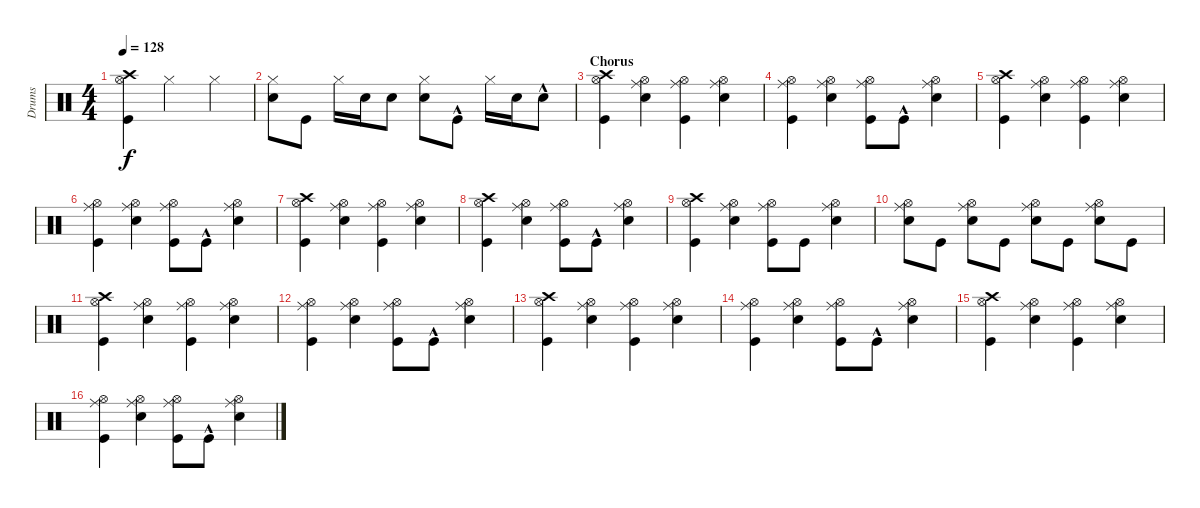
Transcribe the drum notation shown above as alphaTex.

\track ("Drums" "Drums") {instrument percussion}
\staff {score}
\articulation defaults
\ts (4 4)
\tempo 128
\clef neutral
\ks c
("Kick (hit)" "Hi-Hat (open)" "Crash high (hit)").4{dy f} "Hi-Hat (closed)".2 "Hi-Hat (closed)".4 |
("Snare (hit) 2" "Hi-Hat (closed)").8 "Kick (hit)".8 "Hi-Hat (closed)".16 "Snare (hit) 2".16 "Snare (hit) 2".8 ("Snare (hit) 2" "Hi-Hat (closed)").8 "Kick (hit)"{hac}.8 "Hi-Hat (closed)".16 "Snare (hit) 2".16 "Snare (hit) 2"{hac}.8 |
\section ("" "Chorus")
("Kick (hit)" "Hi-Hat (open)" "Crash high (hit)").4 ("Snare (hit) 2" "Hi-Hat (open)" "Ride (middle)").4 ("Kick (hit)" "Hi-Hat (open)" "Ride (middle)").4 ("Snare (hit) 2" "Hi-Hat (open)" "Ride (middle)").4 |
("Kick (hit)" "Hi-Hat (open)" "Ride (middle)").4 ("Snare (hit) 2" "Hi-Hat (open)" "Ride (middle)").4 ("Kick (hit)" "Hi-Hat (open)" "Ride (middle)").8 "Kick (hit)"{hac}.8 ("Snare (hit) 2" "Hi-Hat (open)" "Ride (middle)").4 |
("Kick (hit)" "Hi-Hat (open)" "Crash high (hit)").4 ("Snare (hit) 2" "Hi-Hat (open)" "Ride (middle)").4 ("Kick (hit)" "Hi-Hat (open)" "Ride (middle)").4 ("Snare (hit) 2" "Hi-Hat (open)" "Ride (middle)").4 |
("Kick (hit)" "Hi-Hat (open)" "Ride (middle)").4 ("Snare (hit) 2" "Hi-Hat (open)" "Ride (middle)").4 ("Kick (hit)" "Hi-Hat (open)" "Ride (middle)").8 "Kick (hit)"{hac}.8 ("Snare (hit) 2" "Hi-Hat (open)" "Ride (middle)").4 |
("Kick (hit)" "Hi-Hat (open)" "Crash high (hit)").4 ("Snare (hit) 2" "Hi-Hat (open)" "Ride (middle)").4 ("Kick (hit)" "Hi-Hat (open)" "Ride (middle)").4 ("Snare (hit) 2" "Hi-Hat (open)" "Ride (middle)").4 |
("Kick (hit)" "Hi-Hat (open)" "Crash high (hit)").4 ("Snare (hit) 2" "Hi-Hat (open)" "Ride (middle)").4 ("Kick (hit)" "Hi-Hat (open)" "Ride (middle)").8 "Kick (hit)"{hac}.8 ("Snare (hit) 2" "Hi-Hat (open)" "Ride (middle)").4 |
("Kick (hit)" "Hi-Hat (open)" "Crash high (hit)").4 ("Snare (hit) 2" "Hi-Hat (open)" "Ride (middle)").4 ("Kick (hit)" "Hi-Hat (open)" "Ride (middle)").8 "Kick (hit)".8 ("Snare (hit) 2" "Hi-Hat (open)" "Ride (middle)").4 |
("Snare (hit) 2" "Hi-Hat (open)" "Ride (middle)").8 "Kick (hit)".8 ("Snare (hit) 2" "Hi-Hat (open)" "Ride (middle)").8 "Kick (hit)".8 ("Snare (hit) 2" "Hi-Hat (open)" "Ride (middle)").8 "Kick (hit)".8 ("Snare (hit) 2" "Hi-Hat (open)" "Ride (middle)").8 "Kick (hit)".8 |
("Kick (hit)" "Hi-Hat (open)" "Crash high (hit)").4 ("Snare (hit) 2" "Hi-Hat (open)" "Ride (middle)").4 ("Kick (hit)" "Hi-Hat (open)" "Ride (middle)").4 ("Snare (hit) 2" "Hi-Hat (open)" "Ride (middle)").4 |
("Kick (hit)" "Hi-Hat (open)" "Ride (middle)").4 ("Snare (hit) 2" "Hi-Hat (open)" "Ride (middle)").4 ("Kick (hit)" "Hi-Hat (open)" "Ride (middle)").8 "Kick (hit)"{hac}.8 ("Snare (hit) 2" "Hi-Hat (open)" "Ride (middle)").4 |
("Kick (hit)" "Hi-Hat (open)" "Crash high (hit)").4 ("Snare (hit) 2" "Hi-Hat (open)" "Ride (middle)").4 ("Kick (hit)" "Hi-Hat (open)" "Ride (middle)").4 ("Snare (hit) 2" "Hi-Hat (open)" "Ride (middle)").4 |
("Kick (hit)" "Hi-Hat (open)" "Ride (middle)").4 ("Snare (hit) 2" "Hi-Hat (open)" "Ride (middle)").4 ("Kick (hit)" "Hi-Hat (open)" "Ride (middle)").8 "Kick (hit)"{hac}.8 ("Snare (hit) 2" "Hi-Hat (open)" "Ride (middle)").4 |
("Kick (hit)" "Hi-Hat (open)" "Crash high (hit)").4 ("Snare (hit) 2" "Hi-Hat (open)" "Ride (middle)").4 ("Kick (hit)" "Hi-Hat (open)" "Ride (middle)").4 ("Snare (hit) 2" "Hi-Hat (open)" "Ride (middle)").4 |
("Kick (hit)" "Hi-Hat (open)" "Ride (middle)").4 ("Snare (hit) 2" "Hi-Hat (open)" "Ride (middle)").4 ("Kick (hit)" "Hi-Hat (open)" "Ride (middle)").8 "Kick (hit)"{hac}.8 ("Snare (hit) 2" "Hi-Hat (open)" "Ride (middle)").4
